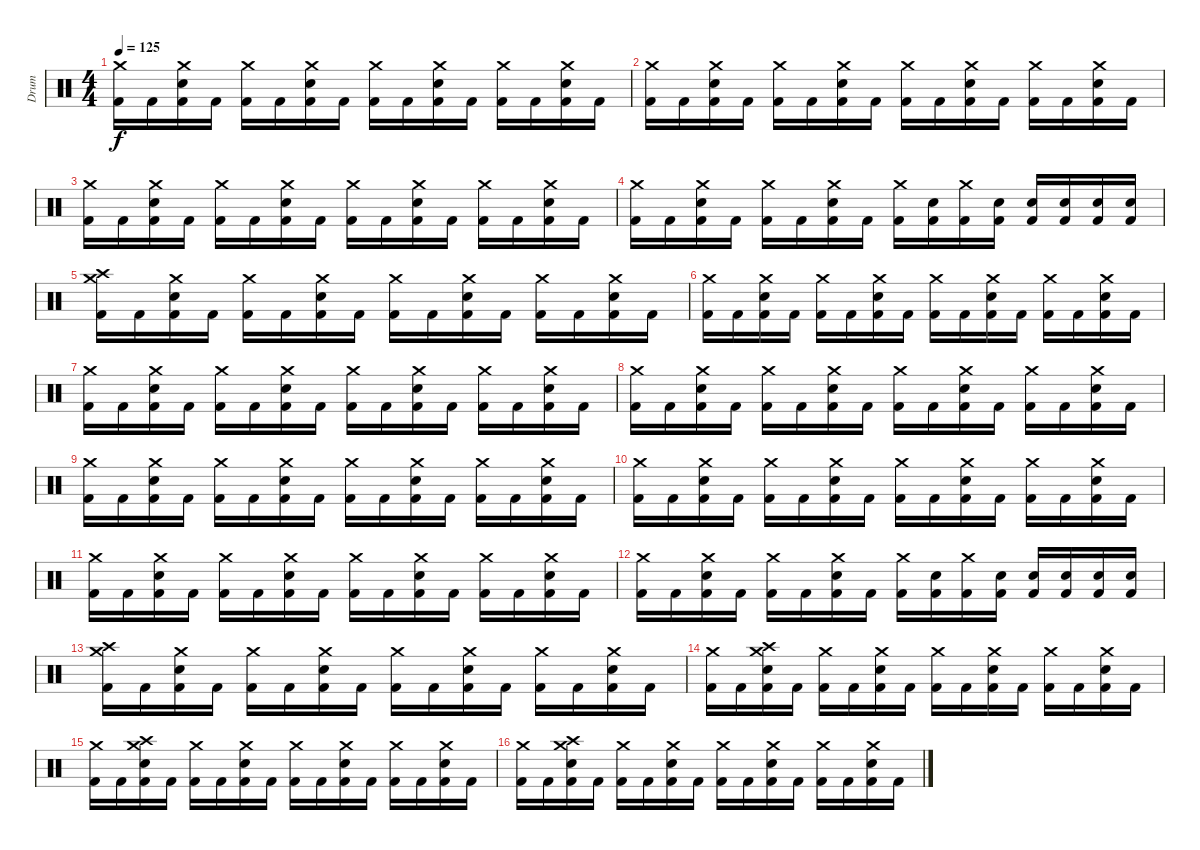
\track ("Drum" "Drum") {instrument percussion}
\staff {score}
\articulation defaults
\ts (4 4)
\tempo 125
\clef neutral
\ks c
("Crash medium (hit)" "Kick (hit) 2").16{dy f} "Kick (hit) 2".16 ("Crash medium (hit)" "Kick (hit) 2" "Electric Snare (hit)").16 "Kick (hit) 2".16 ("Crash medium (hit)" "Kick (hit) 2").16 "Kick (hit) 2".16 ("Crash medium (hit)" "Kick (hit) 2" "Electric Snare (hit)").16 "Kick (hit) 2".16 ("Crash medium (hit)" "Kick (hit) 2").16 "Kick (hit) 2".16 ("Crash medium (hit)" "Kick (hit) 2" "Electric Snare (hit)").16 "Kick (hit) 2".16 ("Crash medium (hit)" "Kick (hit) 2").16 "Kick (hit) 2".16 ("Crash medium (hit)" "Kick (hit) 2" "Electric Snare (hit)").16 "Kick (hit) 2".16 |
("Crash medium (hit)" "Kick (hit) 2").16 "Kick (hit) 2".16 ("Crash medium (hit)" "Kick (hit) 2" "Electric Snare (hit)").16 "Kick (hit) 2".16 ("Crash medium (hit)" "Kick (hit) 2").16 "Kick (hit) 2".16 ("Crash medium (hit)" "Kick (hit) 2" "Electric Snare (hit)").16 "Kick (hit) 2".16 ("Crash medium (hit)" "Kick (hit) 2").16 "Kick (hit) 2".16 ("Crash medium (hit)" "Kick (hit) 2" "Electric Snare (hit)").16 "Kick (hit) 2".16 ("Crash medium (hit)" "Kick (hit) 2").16 "Kick (hit) 2".16 ("Crash medium (hit)" "Kick (hit) 2" "Electric Snare (hit)").16 "Kick (hit) 2".16 |
("Crash medium (hit)" "Kick (hit) 2").16 "Kick (hit) 2".16 ("Crash medium (hit)" "Kick (hit) 2" "Electric Snare (hit)").16 "Kick (hit) 2".16 ("Crash medium (hit)" "Kick (hit) 2").16 "Kick (hit) 2".16 ("Crash medium (hit)" "Kick (hit) 2" "Electric Snare (hit)").16 "Kick (hit) 2".16 ("Crash medium (hit)" "Kick (hit) 2").16 "Kick (hit) 2".16 ("Crash medium (hit)" "Kick (hit) 2" "Electric Snare (hit)").16 "Kick (hit) 2".16 ("Crash medium (hit)" "Kick (hit) 2").16 "Kick (hit) 2".16 ("Crash medium (hit)" "Kick (hit) 2" "Electric Snare (hit)").16 "Kick (hit) 2".16 |
("Crash medium (hit)" "Kick (hit) 2").16 "Kick (hit) 2".16 ("Crash medium (hit)" "Kick (hit) 2" "Electric Snare (hit)").16 "Kick (hit) 2".16 ("Crash medium (hit)" "Kick (hit) 2").16 "Kick (hit) 2".16 ("Crash medium (hit)" "Kick (hit) 2" "Electric Snare (hit)").16 "Kick (hit) 2".16 ("Crash medium (hit)" "Kick (hit) 2").16 ("Kick (hit) 2" "Electric Snare (hit)").16 ("Crash medium (hit)" "Kick (hit) 2").16 ("Kick (hit) 2" "Electric Snare (hit)").16 ("Kick (hit) 2" "Electric Snare (hit)").16 ("Kick (hit) 2" "Electric Snare (hit)").16 ("Kick (hit) 2" "Electric Snare (hit)").16 ("Kick (hit) 2" "Electric Snare (hit)").16 |
("Crash high (hit)" "Crash medium (hit)" "Kick (hit) 2").16 "Kick (hit) 2".16 ("Crash medium (hit)" "Kick (hit) 2" "Electric Snare (hit)").16 "Kick (hit) 2".16 ("Crash medium (hit)" "Kick (hit) 2").16 "Kick (hit) 2".16 ("Crash medium (hit)" "Kick (hit) 2" "Electric Snare (hit)").16 "Kick (hit) 2".16 ("Crash medium (hit)" "Kick (hit) 2").16 "Kick (hit) 2".16 ("Crash medium (hit)" "Kick (hit) 2" "Electric Snare (hit)").16 "Kick (hit) 2".16 ("Crash medium (hit)" "Kick (hit) 2").16 "Kick (hit) 2".16 ("Crash medium (hit)" "Kick (hit) 2" "Electric Snare (hit)").16 "Kick (hit) 2".16 |
("Crash medium (hit)" "Kick (hit) 2").16 "Kick (hit) 2".16 ("Crash medium (hit)" "Kick (hit) 2" "Electric Snare (hit)").16 "Kick (hit) 2".16 ("Crash medium (hit)" "Kick (hit) 2").16 "Kick (hit) 2".16 ("Crash medium (hit)" "Kick (hit) 2" "Electric Snare (hit)").16 "Kick (hit) 2".16 ("Crash medium (hit)" "Kick (hit) 2").16 "Kick (hit) 2".16 ("Crash medium (hit)" "Kick (hit) 2" "Electric Snare (hit)").16 "Kick (hit) 2".16 ("Crash medium (hit)" "Kick (hit) 2").16 "Kick (hit) 2".16 ("Crash medium (hit)" "Kick (hit) 2" "Electric Snare (hit)").16 "Kick (hit) 2".16 |
("Crash medium (hit)" "Kick (hit) 2").16 "Kick (hit) 2".16 ("Crash medium (hit)" "Kick (hit) 2" "Electric Snare (hit)").16 "Kick (hit) 2".16 ("Crash medium (hit)" "Kick (hit) 2").16 "Kick (hit) 2".16 ("Crash medium (hit)" "Kick (hit) 2" "Electric Snare (hit)").16 "Kick (hit) 2".16 ("Crash medium (hit)" "Kick (hit) 2").16 "Kick (hit) 2".16 ("Crash medium (hit)" "Kick (hit) 2" "Electric Snare (hit)").16 "Kick (hit) 2".16 ("Crash medium (hit)" "Kick (hit) 2").16 "Kick (hit) 2".16 ("Crash medium (hit)" "Kick (hit) 2" "Electric Snare (hit)").16 "Kick (hit) 2".16 |
("Crash medium (hit)" "Kick (hit) 2").16 "Kick (hit) 2".16 ("Crash medium (hit)" "Kick (hit) 2" "Electric Snare (hit)").16 "Kick (hit) 2".16 ("Crash medium (hit)" "Kick (hit) 2").16 "Kick (hit) 2".16 ("Crash medium (hit)" "Kick (hit) 2" "Electric Snare (hit)").16 "Kick (hit) 2".16 ("Crash medium (hit)" "Kick (hit) 2").16 "Kick (hit) 2".16 ("Crash medium (hit)" "Kick (hit) 2" "Electric Snare (hit)").16 "Kick (hit) 2".16 ("Crash medium (hit)" "Kick (hit) 2").16 "Kick (hit) 2".16 ("Crash medium (hit)" "Kick (hit) 2" "Electric Snare (hit)").16 "Kick (hit) 2".16 |
("Crash medium (hit)" "Kick (hit) 2").16 "Kick (hit) 2".16 ("Crash medium (hit)" "Kick (hit) 2" "Electric Snare (hit)").16 "Kick (hit) 2".16 ("Crash medium (hit)" "Kick (hit) 2").16 "Kick (hit) 2".16 ("Crash medium (hit)" "Kick (hit) 2" "Electric Snare (hit)").16 "Kick (hit) 2".16 ("Crash medium (hit)" "Kick (hit) 2").16 "Kick (hit) 2".16 ("Crash medium (hit)" "Kick (hit) 2" "Electric Snare (hit)").16 "Kick (hit) 2".16 ("Crash medium (hit)" "Kick (hit) 2").16 "Kick (hit) 2".16 ("Crash medium (hit)" "Kick (hit) 2" "Electric Snare (hit)").16 "Kick (hit) 2".16 |
("Crash medium (hit)" "Kick (hit) 2").16 "Kick (hit) 2".16 ("Crash medium (hit)" "Kick (hit) 2" "Electric Snare (hit)").16 "Kick (hit) 2".16 ("Crash medium (hit)" "Kick (hit) 2").16 "Kick (hit) 2".16 ("Crash medium (hit)" "Kick (hit) 2" "Electric Snare (hit)").16 "Kick (hit) 2".16 ("Crash medium (hit)" "Kick (hit) 2").16 "Kick (hit) 2".16 ("Crash medium (hit)" "Kick (hit) 2" "Electric Snare (hit)").16 "Kick (hit) 2".16 ("Crash medium (hit)" "Kick (hit) 2").16 "Kick (hit) 2".16 ("Crash medium (hit)" "Kick (hit) 2" "Electric Snare (hit)").16 "Kick (hit) 2".16 |
("Crash medium (hit)" "Kick (hit) 2").16 "Kick (hit) 2".16 ("Crash medium (hit)" "Kick (hit) 2" "Electric Snare (hit)").16 "Kick (hit) 2".16 ("Crash medium (hit)" "Kick (hit) 2").16 "Kick (hit) 2".16 ("Crash medium (hit)" "Kick (hit) 2" "Electric Snare (hit)").16 "Kick (hit) 2".16 ("Crash medium (hit)" "Kick (hit) 2").16 "Kick (hit) 2".16 ("Crash medium (hit)" "Kick (hit) 2" "Electric Snare (hit)").16 "Kick (hit) 2".16 ("Crash medium (hit)" "Kick (hit) 2").16 "Kick (hit) 2".16 ("Crash medium (hit)" "Kick (hit) 2" "Electric Snare (hit)").16 "Kick (hit) 2".16 |
("Crash medium (hit)" "Kick (hit) 2").16 "Kick (hit) 2".16 ("Crash medium (hit)" "Kick (hit) 2" "Electric Snare (hit)").16 "Kick (hit) 2".16 ("Crash medium (hit)" "Kick (hit) 2").16 "Kick (hit) 2".16 ("Crash medium (hit)" "Kick (hit) 2" "Electric Snare (hit)").16 "Kick (hit) 2".16 ("Crash medium (hit)" "Kick (hit) 2").16 ("Kick (hit) 2" "Electric Snare (hit)").16 ("Crash medium (hit)" "Kick (hit) 2").16 ("Kick (hit) 2" "Electric Snare (hit)").16 ("Kick (hit) 2" "Electric Snare (hit)").16 ("Kick (hit) 2" "Electric Snare (hit)").16 ("Kick (hit) 2" "Electric Snare (hit)").16 ("Kick (hit) 2" "Electric Snare (hit)").16 |
("Crash high (hit)" "Crash medium (hit)" "Kick (hit) 2").16 "Kick (hit) 2".16 ("Crash medium (hit)" "Kick (hit) 2" "Electric Snare (hit)").16 "Kick (hit) 2".16 ("Crash medium (hit)" "Kick (hit) 2").16 "Kick (hit) 2".16 ("Crash medium (hit)" "Kick (hit) 2" "Electric Snare (hit)").16 "Kick (hit) 2".16 ("Crash medium (hit)" "Kick (hit) 2").16 "Kick (hit) 2".16 ("Crash medium (hit)" "Kick (hit) 2" "Electric Snare (hit)").16 "Kick (hit) 2".16 ("Crash medium (hit)" "Kick (hit) 2").16 "Kick (hit) 2".16 ("Crash medium (hit)" "Kick (hit) 2" "Electric Snare (hit)").16 "Kick (hit) 2".16 |
("Crash medium (hit)" "Kick (hit) 2").16 "Kick (hit) 2".16 ("Crash high (hit)" "Crash medium (hit)" "Kick (hit) 2" "Electric Snare (hit)").16 "Kick (hit) 2".16 ("Crash medium (hit)" "Kick (hit) 2").16 "Kick (hit) 2".16 ("Crash medium (hit)" "Kick (hit) 2" "Electric Snare (hit)").16 "Kick (hit) 2".16 ("Crash medium (hit)" "Kick (hit) 2").16 "Kick (hit) 2".16 ("Crash medium (hit)" "Kick (hit) 2" "Electric Snare (hit)").16 "Kick (hit) 2".16 ("Crash medium (hit)" "Kick (hit) 2").16 "Kick (hit) 2".16 ("Crash medium (hit)" "Kick (hit) 2" "Electric Snare (hit)").16 "Kick (hit) 2".16 |
("Crash medium (hit)" "Kick (hit) 2").16 "Kick (hit) 2".16 ("Crash high (hit)" "Crash medium (hit)" "Kick (hit) 2" "Electric Snare (hit)").16 "Kick (hit) 2".16 ("Crash medium (hit)" "Kick (hit) 2").16 "Kick (hit) 2".16 ("Crash medium (hit)" "Kick (hit) 2" "Electric Snare (hit)").16 "Kick (hit) 2".16 ("Crash medium (hit)" "Kick (hit) 2").16 "Kick (hit) 2".16 ("Crash medium (hit)" "Kick (hit) 2" "Electric Snare (hit)").16 "Kick (hit) 2".16 ("Crash medium (hit)" "Kick (hit) 2").16 "Kick (hit) 2".16 ("Crash medium (hit)" "Kick (hit) 2" "Electric Snare (hit)").16 "Kick (hit) 2".16 |
("Crash medium (hit)" "Kick (hit) 2").16 "Kick (hit) 2".16 ("Crash high (hit)" "Crash medium (hit)" "Kick (hit) 2" "Electric Snare (hit)").16 "Kick (hit) 2".16 ("Crash medium (hit)" "Kick (hit) 2").16 "Kick (hit) 2".16 ("Crash medium (hit)" "Kick (hit) 2" "Electric Snare (hit)").16 "Kick (hit) 2".16 ("Crash medium (hit)" "Kick (hit) 2").16 "Kick (hit) 2".16 ("Crash medium (hit)" "Kick (hit) 2" "Electric Snare (hit)").16 "Kick (hit) 2".16 ("Crash medium (hit)" "Kick (hit) 2").16 "Kick (hit) 2".16 ("Crash medium (hit)" "Kick (hit) 2" "Electric Snare (hit)").16 "Kick (hit) 2".16
